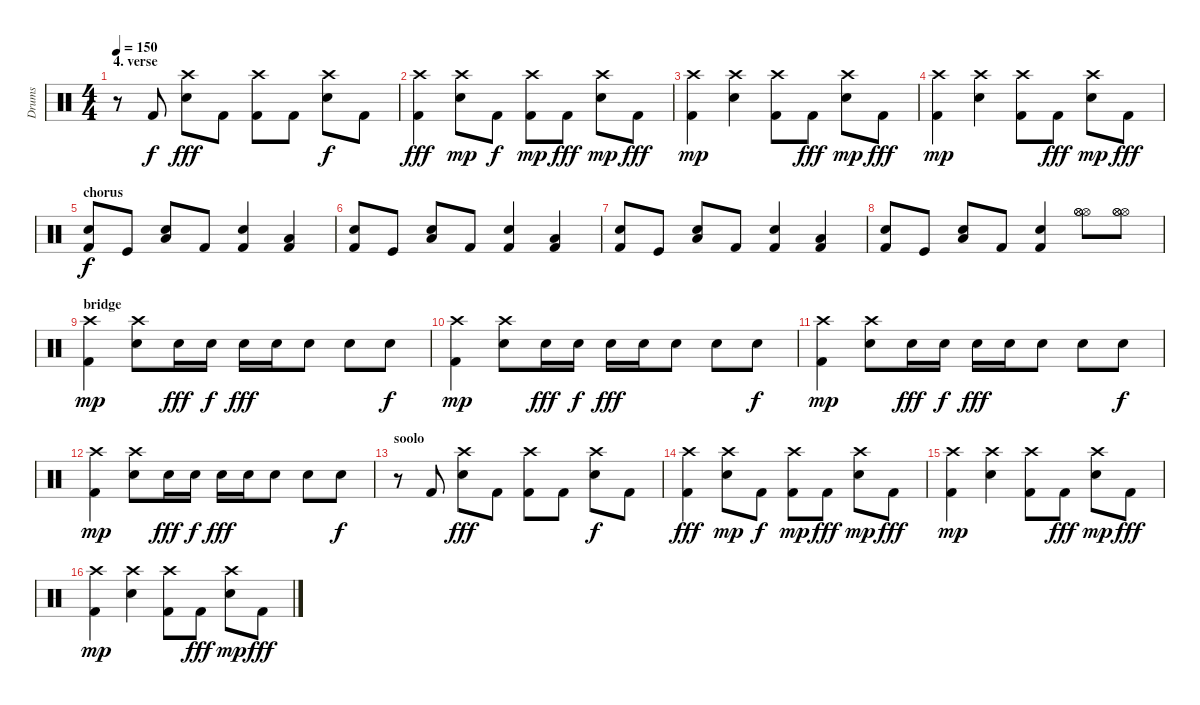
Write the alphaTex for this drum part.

\track ("Drums" "Drums") {instrument percussion}
\staff {score}
\articulation defaults
\ts (4 4)
\section ("" "4. verse")
\tempo 150
\clef neutral
\ks c
r.8{dy f} "Kick (hit) 2".8 ("Electric Snare (hit)" "Crash high (hit)").8{dy fff} "Kick (hit) 2".8 ("Kick (hit) 2" "Crash high (hit)").8 "Kick (hit) 2".8 ("Electric Snare (hit)" "Crash high (hit)").8{dy f} "Kick (hit) 2".8 |
("Kick (hit) 2" "Crash high (hit)").4{dy fff} ("Electric Snare (hit)" "Crash high (hit)").8{dy mp} "Kick (hit) 2".8{dy f} ("Kick (hit) 2" "Crash high (hit)").8{dy mp} "Kick (hit) 2".8{dy fff} ("Electric Snare (hit)" "Crash high (hit)").8{dy mp} "Kick (hit) 2".8{dy fff} |
("Kick (hit) 2" "Crash high (hit)").4{dy mp} ("Electric Snare (hit)" "Crash high (hit)").4 ("Kick (hit) 2" "Crash high (hit)").8 "Kick (hit) 2".8{dy fff} ("Electric Snare (hit)" "Crash high (hit)").8{dy mp} "Kick (hit) 2".8{dy fff} |
("Kick (hit) 2" "Crash high (hit)").4{dy mp} ("Electric Snare (hit)" "Crash high (hit)").4 ("Kick (hit) 2" "Crash high (hit)").8 "Kick (hit) 2".8{dy fff} ("Electric Snare (hit)" "Crash high (hit)").8{dy mp} "Kick (hit) 2".8{dy fff} |
\section ("" "chorus")
("Kick (hit) 2" "Snare (hit) 2").8{dy f} "Kick (hit)".8 ("Low Tom (hit)" "Snare (hit) 2").8 "Kick (hit) 2".8 ("Kick (hit) 2" "Snare (hit) 2").4 ("Low Tom (hit)" "Kick (hit) 2").4 |
("Kick (hit) 2" "Snare (hit) 2").8 "Kick (hit)".8 ("Low Tom (hit)" "Snare (hit) 2").8 "Kick (hit) 2".8 ("Kick (hit) 2" "Snare (hit) 2").4 ("Low Tom (hit)" "Kick (hit) 2").4 |
("Kick (hit) 2" "Snare (hit) 2").8 "Kick (hit)".8 ("Low Tom (hit)" "Snare (hit) 2").8 "Kick (hit) 2".8 ("Kick (hit) 2" "Snare (hit) 2").4 ("Low Tom (hit)" "Kick (hit) 2").4 |
("Kick (hit) 2" "Snare (hit) 2").8 "Kick (hit)".8 ("Low Tom (hit)" "Snare (hit) 2").8 "Kick (hit) 2".8 ("Kick (hit) 2" "Snare (hit) 2").4 ("Hi-Hat (open)" "Hi-Hat (open)" "Hi-Hat (open)").8 ("Hi-Hat (open)" "Hi-Hat (open)" "Hi-Hat (open)").8 |
\section ("" "bridge")
("Kick (hit) 2" "Crash high (hit)").4{dy mp} ("Electric Snare (hit)" "Crash high (hit)").8 "Electric Snare (hit)".16{dy fff} "Electric Snare (hit)".16{dy f} "Electric Snare (hit)".16{dy fff} "Electric Snare (hit)".16 "Electric Snare (hit)".8 "Electric Snare (hit)".8 "Electric Snare (hit)".8{dy f} |
("Kick (hit) 2" "Crash high (hit)").4{dy mp} ("Electric Snare (hit)" "Crash high (hit)").8 "Electric Snare (hit)".16{dy fff} "Electric Snare (hit)".16{dy f} "Electric Snare (hit)".16{dy fff} "Electric Snare (hit)".16 "Electric Snare (hit)".8 "Electric Snare (hit)".8 "Electric Snare (hit)".8{dy f} |
("Kick (hit) 2" "Crash high (hit)").4{dy mp} ("Electric Snare (hit)" "Crash high (hit)").8 "Electric Snare (hit)".16{dy fff} "Electric Snare (hit)".16{dy f} "Electric Snare (hit)".16{dy fff} "Electric Snare (hit)".16 "Electric Snare (hit)".8 "Electric Snare (hit)".8 "Electric Snare (hit)".8{dy f} |
("Kick (hit) 2" "Crash high (hit)").4{dy mp} ("Electric Snare (hit)" "Crash high (hit)").8 "Electric Snare (hit)".16{dy fff} "Electric Snare (hit)".16{dy f} "Electric Snare (hit)".16{dy fff} "Electric Snare (hit)".16 "Electric Snare (hit)".8 "Electric Snare (hit)".8 "Electric Snare (hit)".8{dy f} |
\section ("" "soolo")
r.8 "Kick (hit) 2".8 ("Electric Snare (hit)" "Crash high (hit)").8{dy fff} "Kick (hit) 2".8 ("Kick (hit) 2" "Crash high (hit)").8 "Kick (hit) 2".8 ("Electric Snare (hit)" "Crash high (hit)").8{dy f} "Kick (hit) 2".8 |
("Kick (hit) 2" "Crash high (hit)").4{dy fff} ("Electric Snare (hit)" "Crash high (hit)").8{dy mp} "Kick (hit) 2".8{dy f} ("Kick (hit) 2" "Crash high (hit)").8{dy mp} "Kick (hit) 2".8{dy fff} ("Electric Snare (hit)" "Crash high (hit)").8{dy mp} "Kick (hit) 2".8{dy fff} |
("Kick (hit) 2" "Crash high (hit)").4{dy mp} ("Electric Snare (hit)" "Crash high (hit)").4 ("Kick (hit) 2" "Crash high (hit)").8 "Kick (hit) 2".8{dy fff} ("Electric Snare (hit)" "Crash high (hit)").8{dy mp} "Kick (hit) 2".8{dy fff} |
("Kick (hit) 2" "Crash high (hit)").4{dy mp} ("Electric Snare (hit)" "Crash high (hit)").4 ("Kick (hit) 2" "Crash high (hit)").8 "Kick (hit) 2".8{dy fff} ("Electric Snare (hit)" "Crash high (hit)").8{dy mp} "Kick (hit) 2".8{dy fff}
